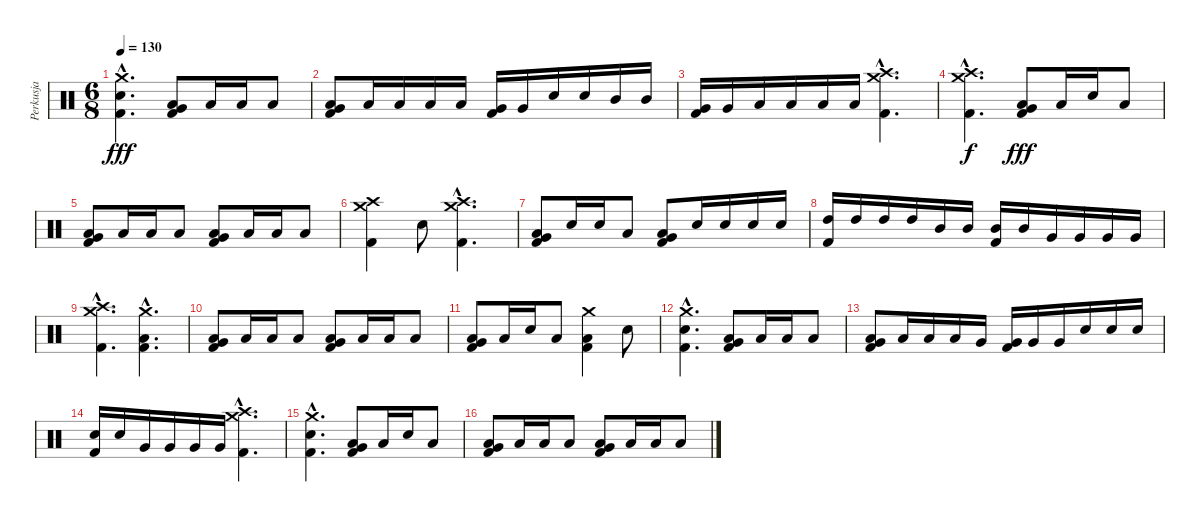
\track ("Perkusja" "Perkusja") {instrument percussion}
\staff {score}
\articulation defaults
\ts (6 8)
\tempo 130
\clef neutral
\ks c
("Crash medium (hit)"{hac} "Electric Snare (hit)"{hac} "Kick (hit) 2"{hac}).4{d dy fff} ("Very Low Tom (hit)" "Low Floor Tom (hit)" "Kick (hit) 2").8 "Low Floor Tom (hit)".16 "Low Floor Tom (hit)".16 "Low Floor Tom (hit)".8 |
("Very Low Tom (hit)" "Low Floor Tom (hit)" "Kick (hit) 2").8 "Low Floor Tom (hit)".16 "Low Floor Tom (hit)".16 "Low Floor Tom (hit)".16 "Low Floor Tom (hit)".16 ("Very Low Tom (hit)" "Kick (hit) 2").16 "Very Low Tom (hit)".16 "Electric Snare (hit)".16 "Electric Snare (hit)".16 "Mid Tom (hit)".16 "Mid Tom (hit)".16 |
("Very Low Tom (hit)" "Kick (hit) 2").16 "Very Low Tom (hit)".16 "Low Floor Tom (hit)".16 "Low Floor Tom (hit)".16 "Low Floor Tom (hit)".16 "Low Floor Tom (hit)".16 ("Crash high (hit)"{hac} "Crash medium (hit)"{hac} "Kick (hit) 2"{hac}).4{d} |
("Crash high (hit)"{hac} "Crash medium (hit)"{hac} "Kick (hit) 2"{hac}).4{d dy f} ("Very Low Tom (hit)" "Low Floor Tom (hit)" "Kick (hit) 2").8{dy fff} "Low Floor Tom (hit)".16 "Electric Snare (hit)".16 "Low Floor Tom (hit)".8 |
("Very Low Tom (hit)" "Low Floor Tom (hit)" "Kick (hit) 2").8 "Low Floor Tom (hit)".16 "Low Floor Tom (hit)".16 "Low Floor Tom (hit)".8 ("Very Low Tom (hit)" "Low Floor Tom (hit)" "Kick (hit) 2").8 "Low Floor Tom (hit)".16 "Low Floor Tom (hit)".16 "Low Floor Tom (hit)".8 |
("Crash high (hit)" "Crash medium (hit)" "Kick (hit) 2").4 "Electric Snare (hit)".8 ("Crash high (hit)"{hac} "Crash medium (hit)"{hac} "Kick (hit) 2"{hac}).4{d} |
("Very Low Tom (hit)" "Low Floor Tom (hit)" "Kick (hit) 2").8 "Electric Snare (hit)".16 "Electric Snare (hit)".16 "Low Floor Tom (hit)".8 ("Very Low Tom (hit)" "Low Floor Tom (hit)" "Kick (hit) 2").8 "Electric Snare (hit)".16 "Electric Snare (hit)".16 "Electric Snare (hit)".16 "Electric Snare (hit)".16 |
("High Tom (hit)" "Kick (hit) 2").16 "High Tom (hit)".16 "High Tom (hit)".16 "High Tom (hit)".16 "Mid Tom (hit)".16 "Mid Tom (hit)".16 ("Mid Tom (hit)" "Kick (hit) 2").16 "Mid Tom (hit)".16 "Very Low Tom (hit)".16 "Very Low Tom (hit)".16 "Very Low Tom (hit)".16 "Very Low Tom (hit)".16 |
("Crash high (hit)"{hac} "Crash medium (hit)"{hac} "Kick (hit) 2"{hac}).4{d} ("Crash medium (hit)"{hac} "Low Floor Tom (hit)"{hac} "Kick (hit) 2"{hac}).4{d} |
("Very Low Tom (hit)" "Low Floor Tom (hit)" "Kick (hit) 2").8 "Low Floor Tom (hit)".16 "Low Floor Tom (hit)".16 "Low Floor Tom (hit)".8 ("Very Low Tom (hit)" "Low Floor Tom (hit)" "Kick (hit) 2").8 "Low Floor Tom (hit)".16 "Low Floor Tom (hit)".16 "Low Floor Tom (hit)".8 |
("Very Low Tom (hit)" "Low Floor Tom (hit)" "Kick (hit) 2").8 "Low Floor Tom (hit)".16 "Electric Snare (hit)".16 "Low Floor Tom (hit)".8 ("Crash medium (hit)" "Low Floor Tom (hit)" "Kick (hit) 2").4 "Electric Snare (hit)".8 |
("Crash medium (hit)"{hac} "Electric Snare (hit)"{hac} "Kick (hit) 2"{hac}).4{d} ("Very Low Tom (hit)" "Low Floor Tom (hit)" "Kick (hit) 2").8 "Low Floor Tom (hit)".16 "Low Floor Tom (hit)".16 "Low Floor Tom (hit)".8 |
("Very Low Tom (hit)" "Low Floor Tom (hit)" "Kick (hit) 2").8 "Low Floor Tom (hit)".16 "Low Floor Tom (hit)".16 "Low Floor Tom (hit)".16 "Very Low Tom (hit)".16 ("Very Low Tom (hit)" "Kick (hit) 2").16 "Very Low Tom (hit)".16 "Very Low Tom (hit)".16 "Electric Snare (hit)".16 "Electric Snare (hit)".16 "Electric Snare (hit)".16 |
("Electric Snare (hit)" "Kick (hit) 2").16 "Electric Snare (hit)".16 "Very Low Tom (hit)".16 "Very Low Tom (hit)".16 "Very Low Tom (hit)".16 "Very Low Tom (hit)".16 ("Crash high (hit)"{hac} "Crash medium (hit)"{hac} "Kick (hit) 2"{hac}).4{d} |
("Crash medium (hit)"{hac} "Electric Snare (hit)"{hac} "Kick (hit) 2"{hac}).4{d} ("Very Low Tom (hit)" "Low Floor Tom (hit)" "Kick (hit) 2").8 "Low Floor Tom (hit)".16 "Electric Snare (hit)".16 "Low Floor Tom (hit)".8 |
("Very Low Tom (hit)" "Low Floor Tom (hit)" "Kick (hit) 2").8 "Low Floor Tom (hit)".16 "Low Floor Tom (hit)".16 "Low Floor Tom (hit)".8 ("Very Low Tom (hit)" "Low Floor Tom (hit)" "Kick (hit) 2").8 "Low Floor Tom (hit)".16 "Low Floor Tom (hit)".16 "Low Floor Tom (hit)".8
